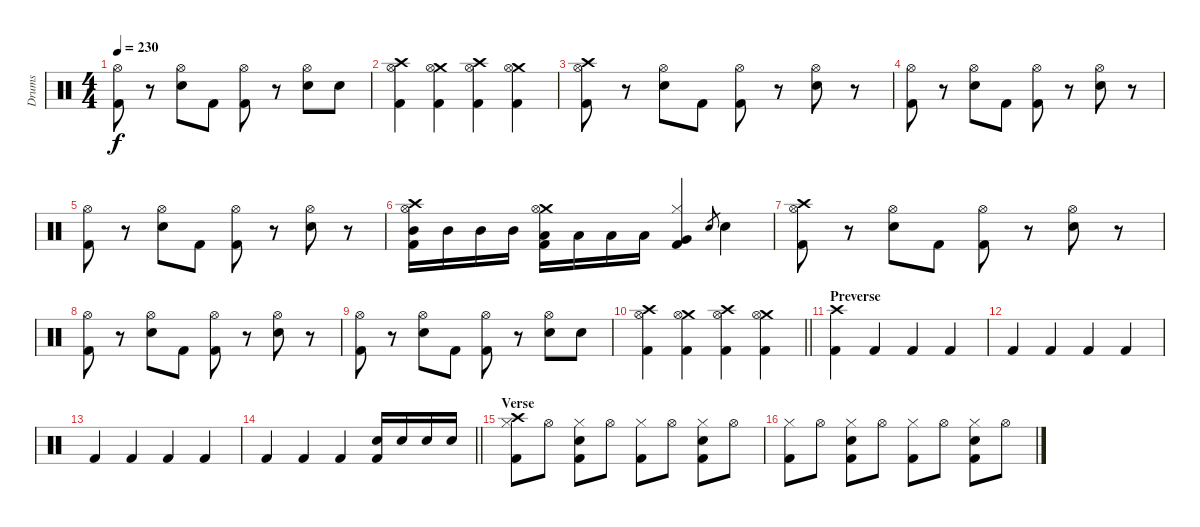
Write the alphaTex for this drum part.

\track ("Drums" "Drums") {instrument percussion}
\staff {score}
\articulation defaults
\ts (4 4)
\tempo 230
\clef neutral
\ks c
("Hi-Hat (open)" "Kick (hit) 2").8{dy f} r.8 ("Hi-Hat (open)" "Snare (hit) 2").8 "Kick (hit) 2".8 ("Hi-Hat (open)" "Kick (hit) 2").8 r.8 ("Hi-Hat (open)" "Snare (hit) 2").8 "Snare (hit) 2".8 |
("Crash high (hit)" "Hi-Hat (open)" "Kick (hit) 2").4 ("Crash medium (hit)" "Hi-Hat (open)" "Kick (hit) 2").4 ("Crash high (hit)" "Hi-Hat (open)" "Kick (hit) 2").4 ("Crash medium (hit)" "Hi-Hat (open)" "Kick (hit) 2").4 |
("Crash high (hit)" "Hi-Hat (open)" "Kick (hit) 2").8 r.8 ("Hi-Hat (open)" "Snare (hit) 2").8 "Kick (hit) 2".8 ("Hi-Hat (open)" "Kick (hit) 2").8 r.8 ("Hi-Hat (open)" "Snare (hit) 2").8 r.8 |
("Hi-Hat (open)" "Kick (hit) 2").8 r.8 ("Hi-Hat (open)" "Snare (hit) 2").8 "Kick (hit) 2".8 ("Hi-Hat (open)" "Kick (hit) 2").8 r.8 ("Hi-Hat (open)" "Snare (hit) 2").8 r.8 |
("Hi-Hat (open)" "Kick (hit) 2").8 r.8 ("Hi-Hat (open)" "Snare (hit) 2").8 "Kick (hit) 2".8 ("Hi-Hat (open)" "Kick (hit) 2").8 r.8 ("Hi-Hat (open)" "Snare (hit) 2").8 r.8 |
("Crash high (hit)" "Hi-Hat (open)" "Mid Tom (hit)" "Kick (hit) 2").16 "Mid Tom (hit)".16 "Mid Tom (hit)".16 "Mid Tom (hit)".16 ("Crash medium (hit)" "Hi-Hat (open)" "Low Tom (hit)" "Kick (hit) 2").16 "Low Tom (hit)".16 "Low Tom (hit)".16 "Low Tom (hit)".16 ("Hi-Hat (closed)" "Very Low Tom (hit)" "Kick (hit) 2").4 "Snare (hit) 2".8{gr} "Snare (hit) 2".4 |
("Crash high (hit)" "Hi-Hat (open)" "Kick (hit) 2").8 r.8 ("Hi-Hat (open)" "Snare (hit) 2").8 "Kick (hit) 2".8 ("Hi-Hat (open)" "Kick (hit) 2").8 r.8 ("Hi-Hat (open)" "Snare (hit) 2").8 r.8 |
("Hi-Hat (open)" "Kick (hit) 2").8 r.8 ("Hi-Hat (open)" "Snare (hit) 2").8 "Kick (hit) 2".8 ("Hi-Hat (open)" "Kick (hit) 2").8 r.8 ("Hi-Hat (open)" "Snare (hit) 2").8 r.8 |
("Hi-Hat (open)" "Kick (hit) 2").8 r.8 ("Hi-Hat (open)" "Snare (hit) 2").8 "Kick (hit) 2".8 ("Hi-Hat (open)" "Kick (hit) 2").8 r.8 ("Hi-Hat (open)" "Snare (hit) 2").8 "Snare (hit) 2".8 |
\barLineRight lightlight
("Crash high (hit)" "Hi-Hat (open)" "Kick (hit) 2").4 ("Crash medium (hit)" "Hi-Hat (open)" "Kick (hit) 2").4 ("Crash high (hit)" "Hi-Hat (open)" "Kick (hit) 2").4 ("Crash medium (hit)" "Hi-Hat (open)" "Kick (hit) 2").4 |
\section ("" "Preverse ")
("Crash high (hit)" "Kick (hit) 2").4 "Kick (hit) 2".4 "Kick (hit) 2".4 "Kick (hit) 2".4 |
"Kick (hit) 2".4 "Kick (hit) 2".4 "Kick (hit) 2".4 "Kick (hit) 2".4 |
"Kick (hit) 2".4 "Kick (hit) 2".4 "Kick (hit) 2".4 "Kick (hit) 2".4 |
\barLineRight lightlight "Kick (hit) 2".4 "Kick (hit) 2".4 "Kick (hit) 2".4
("Snare (hit) 2" "Kick (hit) 2").16 "Snare (hit) 2".16 "Snare (hit) 2".16 "Snare (hit) 2".16 |
\section ("" "Verse")
("Crash high (hit)" "Hi-Hat (closed)" "Kick (hit) 2").8 "Hi-Hat (open)".8 ("Hi-Hat (closed)" "Snare (hit) 2" "Kick (hit) 2").8 "Hi-Hat (open)".8 ("Hi-Hat (closed)" "Kick (hit) 2").8 "Hi-Hat (open)".8 ("Hi-Hat (closed)" "Snare (hit) 2" "Kick (hit) 2").8 "Hi-Hat (open)".8 |
("Hi-Hat (closed)" "Kick (hit) 2").8 "Hi-Hat (open)".8 ("Hi-Hat (closed)" "Snare (hit) 2" "Kick (hit) 2").8 "Hi-Hat (open)".8 ("Hi-Hat (closed)" "Kick (hit) 2").8 "Hi-Hat (open)".8 ("Hi-Hat (closed)" "Snare (hit) 2" "Kick (hit) 2").8 "Hi-Hat (open)".8
